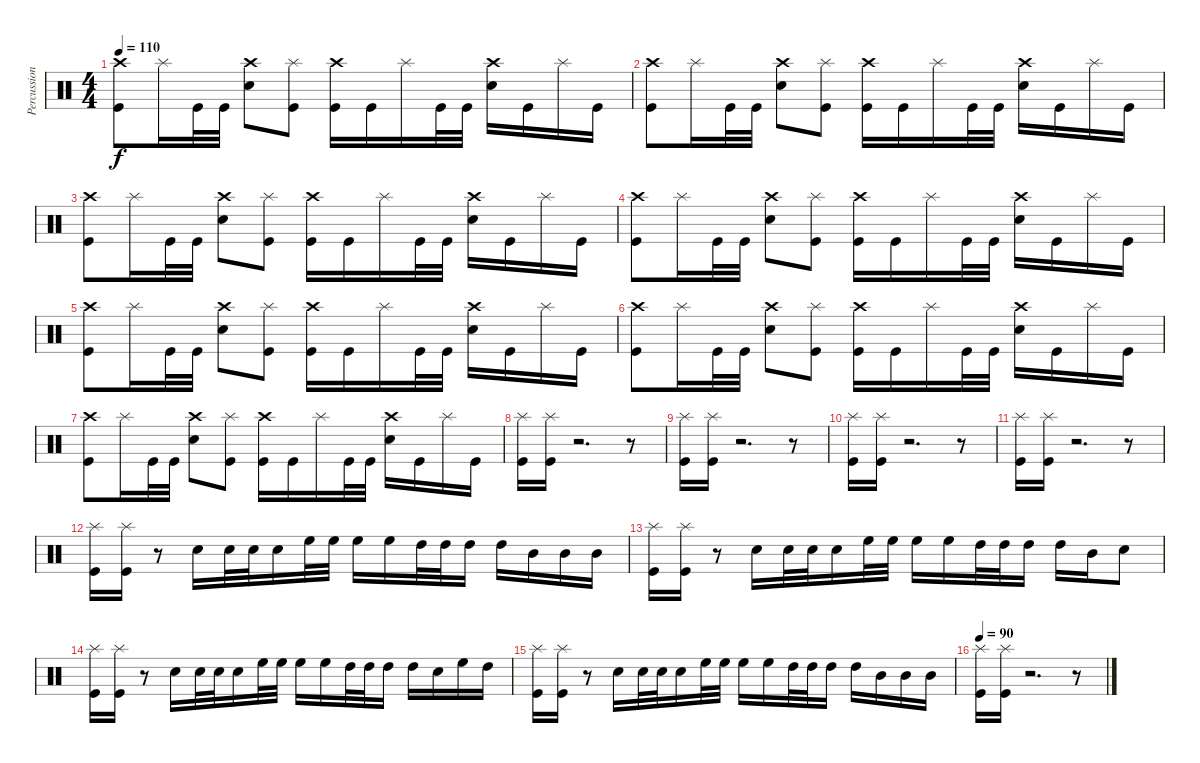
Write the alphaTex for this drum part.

\track ("Percussions" "Percussion") {instrument percussion}
\staff {score}
\articulation defaults
\ts (4 4)
\tempo 110
\clef neutral
\ks c
("Crash high (hit)" "Kick (hit)").8{dy f} "Splash (hit)".16 "Kick (hit)".32 "Kick (hit)".32 ("Crash high (hit)" "Electric Snare (hit)").8 ("Splash (hit)" "Kick (hit)").8 ("Crash high (hit)" "Kick (hit)").16 "Kick (hit)".16 "Splash (hit)".16 "Kick (hit)".32 "Kick (hit)".32 ("Crash high (hit)" "Electric Snare (hit)").16 "Kick (hit)".16 "Splash (hit)".16 "Kick (hit)".16 |
("Crash high (hit)" "Kick (hit)").8 "Splash (hit)".16 "Kick (hit)".32 "Kick (hit)".32 ("Crash high (hit)" "Electric Snare (hit)").8 ("Splash (hit)" "Kick (hit)").8 ("Crash high (hit)" "Kick (hit)").16 "Kick (hit)".16 "Splash (hit)".16 "Kick (hit)".32 "Kick (hit)".32 ("Crash high (hit)" "Electric Snare (hit)").16 "Kick (hit)".16 "Splash (hit)".16 "Kick (hit)".16 |
("Crash high (hit)" "Kick (hit)").8 "Splash (hit)".16 "Kick (hit)".32 "Kick (hit)".32 ("Crash high (hit)" "Electric Snare (hit)").8 ("Splash (hit)" "Kick (hit)").8 ("Crash high (hit)" "Kick (hit)").16 "Kick (hit)".16 "Splash (hit)".16 "Kick (hit)".32 "Kick (hit)".32 ("Crash high (hit)" "Electric Snare (hit)").16 "Kick (hit)".16 "Splash (hit)".16 "Kick (hit)".16 |
("Crash high (hit)" "Kick (hit)").8 "Splash (hit)".16 "Kick (hit)".32 "Kick (hit)".32 ("Crash high (hit)" "Electric Snare (hit)").8 ("Splash (hit)" "Kick (hit)").8 ("Crash high (hit)" "Kick (hit)").16 "Kick (hit)".16 "Splash (hit)".16 "Kick (hit)".32 "Kick (hit)".32 ("Crash high (hit)" "Electric Snare (hit)").16 "Kick (hit)".16 "Splash (hit)".16 "Kick (hit)".16 |
("Crash high (hit)" "Kick (hit)").8 "Splash (hit)".16 "Kick (hit)".32 "Kick (hit)".32 ("Crash high (hit)" "Electric Snare (hit)").8 ("Splash (hit)" "Kick (hit)").8 ("Crash high (hit)" "Kick (hit)").16 "Kick (hit)".16 "Splash (hit)".16 "Kick (hit)".32 "Kick (hit)".32 ("Crash high (hit)" "Electric Snare (hit)").16 "Kick (hit)".16 "Splash (hit)".16 "Kick (hit)".16 |
("Crash high (hit)" "Kick (hit)").8 "Splash (hit)".16 "Kick (hit)".32 "Kick (hit)".32 ("Crash high (hit)" "Electric Snare (hit)").8 ("Splash (hit)" "Kick (hit)").8 ("Crash high (hit)" "Kick (hit)").16 "Kick (hit)".16 "Splash (hit)".16 "Kick (hit)".32 "Kick (hit)".32 ("Crash high (hit)" "Electric Snare (hit)").16 "Kick (hit)".16 "Splash (hit)".16 "Kick (hit)".16 |
("Crash high (hit)" "Kick (hit)").8 "Splash (hit)".16 "Kick (hit)".32 "Kick (hit)".32 ("Crash high (hit)" "Electric Snare (hit)").8 ("Splash (hit)" "Kick (hit)").8 ("Crash high (hit)" "Kick (hit)").16 "Kick (hit)".16 "Splash (hit)".16 "Kick (hit)".32 "Kick (hit)".32 ("Crash high (hit)" "Electric Snare (hit)").16 "Kick (hit)".16 "Splash (hit)".16 "Kick (hit)".16 |
("Splash (hit)" "Kick (hit)").16 ("Splash (hit)" "Kick (hit)").16 r.2{d} r.8 |
("Splash (hit)" "Kick (hit)").16 ("Splash (hit)" "Kick (hit)").16 r.2{d} r.8 |
("Splash (hit)" "Kick (hit)").16 ("Splash (hit)" "Kick (hit)").16 r.2{d} r.8 |
("Splash (hit)" "Kick (hit)").16 ("Splash (hit)" "Kick (hit)").16 r.2{d} r.8 |
("Splash (hit)" "Kick (hit)").16 ("Splash (hit)" "Kick (hit)").16 r.8 "Electric Snare (hit)".16 "Electric Snare (hit)".32 "Electric Snare (hit)".32 "Electric Snare (hit)".16 "High Floor Tom (hit)".32 "High Floor Tom (hit)".32 "High Floor Tom (hit)".16 "High Floor Tom (hit)".16 "High Tom (hit)".32 "High Tom (hit)".32 "High Tom (hit)".16 "High Tom (hit)".16 "Mid Tom (hit)".16 "Mid Tom (hit)".16 "Mid Tom (hit)".16 |
("Splash (hit)" "Kick (hit)").16 ("Splash (hit)" "Kick (hit)").16 r.8 "Electric Snare (hit)".16 "Electric Snare (hit)".32 "Electric Snare (hit)".32 "Electric Snare (hit)".16 "High Floor Tom (hit)".32 "High Floor Tom (hit)".32 "High Floor Tom (hit)".16 "High Floor Tom (hit)".16 "High Tom (hit)".32 "High Tom (hit)".32 "High Tom (hit)".16 "High Tom (hit)".16 "Mid Tom (hit)".16 "Electric Snare (hit)".8 |
("Splash (hit)" "Kick (hit)").16 ("Splash (hit)" "Kick (hit)").16 r.8 "Electric Snare (hit)".16 "Electric Snare (hit)".32 "Electric Snare (hit)".32 "Electric Snare (hit)".16 "High Floor Tom (hit)".32 "High Floor Tom (hit)".32 "High Floor Tom (hit)".16 "High Floor Tom (hit)".16 "High Tom (hit)".32 "High Tom (hit)".32 "High Tom (hit)".16 "High Tom (hit)".16 "Electric Snare (hit)".16 "High Floor Tom (hit)".16 "High Tom (hit)".16 |
("Splash (hit)" "Kick (hit)").16 ("Splash (hit)" "Kick (hit)").16 r.8 "Electric Snare (hit)".16 "Electric Snare (hit)".32 "Electric Snare (hit)".32 "Electric Snare (hit)".16 "High Floor Tom (hit)".32 "High Floor Tom (hit)".32 "High Floor Tom (hit)".16 "High Floor Tom (hit)".16 "High Tom (hit)".32 "High Tom (hit)".32 "High Tom (hit)".16 "High Tom (hit)".16 "Mid Tom (hit)".16 "Mid Tom (hit)".16 "Mid Tom (hit)".16 |
\tempo 90
("Splash (hit)" "Kick (hit)").16 ("Splash (hit)" "Kick (hit)").16 r.2{d} r.8
